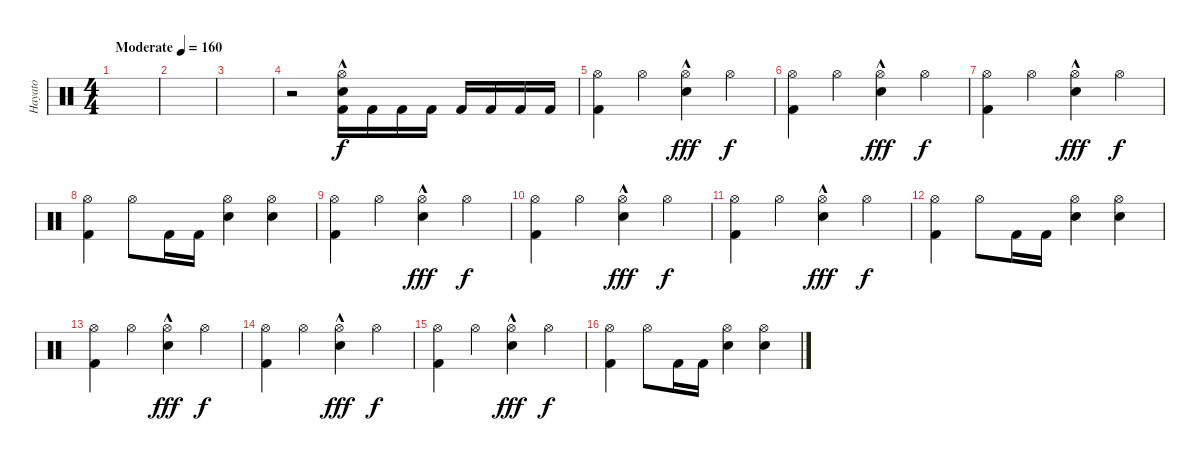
\track ("Hayato" "Hayato") {instrument percussion}
\staff {score}
\articulation defaults
\ts (4 4)
\tempo (160 "Moderate")
\clef neutral
\ks c
|
|
|
r.2 ("Hi-Hat (open)" "Snare (hit) 2"{hac} "Kick (hit) 2").16 "Kick (hit) 2".16{dy f} "Kick (hit) 2".16 "Kick (hit) 2".16 "Kick (hit) 2".16 "Kick (hit) 2".16 "Kick (hit) 2".16 "Kick (hit) 2".16 |
("Hi-Hat (open)" "Kick (hit) 2").4 "Hi-Hat (open)".4 ("Hi-Hat (open)" "Snare (hit) 2"{hac}).4{dy fff} "Hi-Hat (open)".4{dy f} |
("Hi-Hat (open)" "Kick (hit) 2").4 "Hi-Hat (open)".4 ("Hi-Hat (open)" "Snare (hit) 2"{hac}).4{dy fff} "Hi-Hat (open)".4{dy f} |
("Hi-Hat (open)" "Kick (hit) 2").4 "Hi-Hat (open)".4 ("Hi-Hat (open)" "Snare (hit) 2"{hac}).4{dy fff} "Hi-Hat (open)".4{dy f} |
("Hi-Hat (open)" "Kick (hit) 2").4 "Hi-Hat (open)".8 "Kick (hit) 2".16 "Kick (hit) 2".16 ("Hi-Hat (open)" "Snare (hit) 2").4 ("Hi-Hat (open)" "Snare (hit) 2").4 |
("Hi-Hat (open)" "Kick (hit) 2").4 "Hi-Hat (open)".4 ("Hi-Hat (open)" "Snare (hit) 2"{hac}).4{dy fff} "Hi-Hat (open)".4{dy f} |
("Hi-Hat (open)" "Kick (hit) 2").4 "Hi-Hat (open)".4 ("Hi-Hat (open)" "Snare (hit) 2"{hac}).4{dy fff} "Hi-Hat (open)".4{dy f} |
("Hi-Hat (open)" "Kick (hit) 2").4 "Hi-Hat (open)".4 ("Hi-Hat (open)" "Snare (hit) 2"{hac}).4{dy fff} "Hi-Hat (open)".4{dy f} |
("Hi-Hat (open)" "Kick (hit) 2").4 "Hi-Hat (open)".8 "Kick (hit) 2".16 "Kick (hit) 2".16 ("Hi-Hat (open)" "Snare (hit) 2").4 ("Hi-Hat (open)" "Snare (hit) 2").4 |
("Hi-Hat (open)" "Kick (hit) 2").4 "Hi-Hat (open)".4 ("Hi-Hat (open)" "Snare (hit) 2"{hac}).4{dy fff} "Hi-Hat (open)".4{dy f} |
("Hi-Hat (open)" "Kick (hit) 2").4 "Hi-Hat (open)".4 ("Hi-Hat (open)" "Snare (hit) 2"{hac}).4{dy fff} "Hi-Hat (open)".4{dy f} |
("Hi-Hat (open)" "Kick (hit) 2").4 "Hi-Hat (open)".4 ("Hi-Hat (open)" "Snare (hit) 2"{hac}).4{dy fff} "Hi-Hat (open)".4{dy f} |
("Hi-Hat (open)" "Kick (hit) 2").4 "Hi-Hat (open)".8 "Kick (hit) 2".16 "Kick (hit) 2".16 ("Hi-Hat (open)" "Snare (hit) 2").4 ("Hi-Hat (open)" "Snare (hit) 2").4
